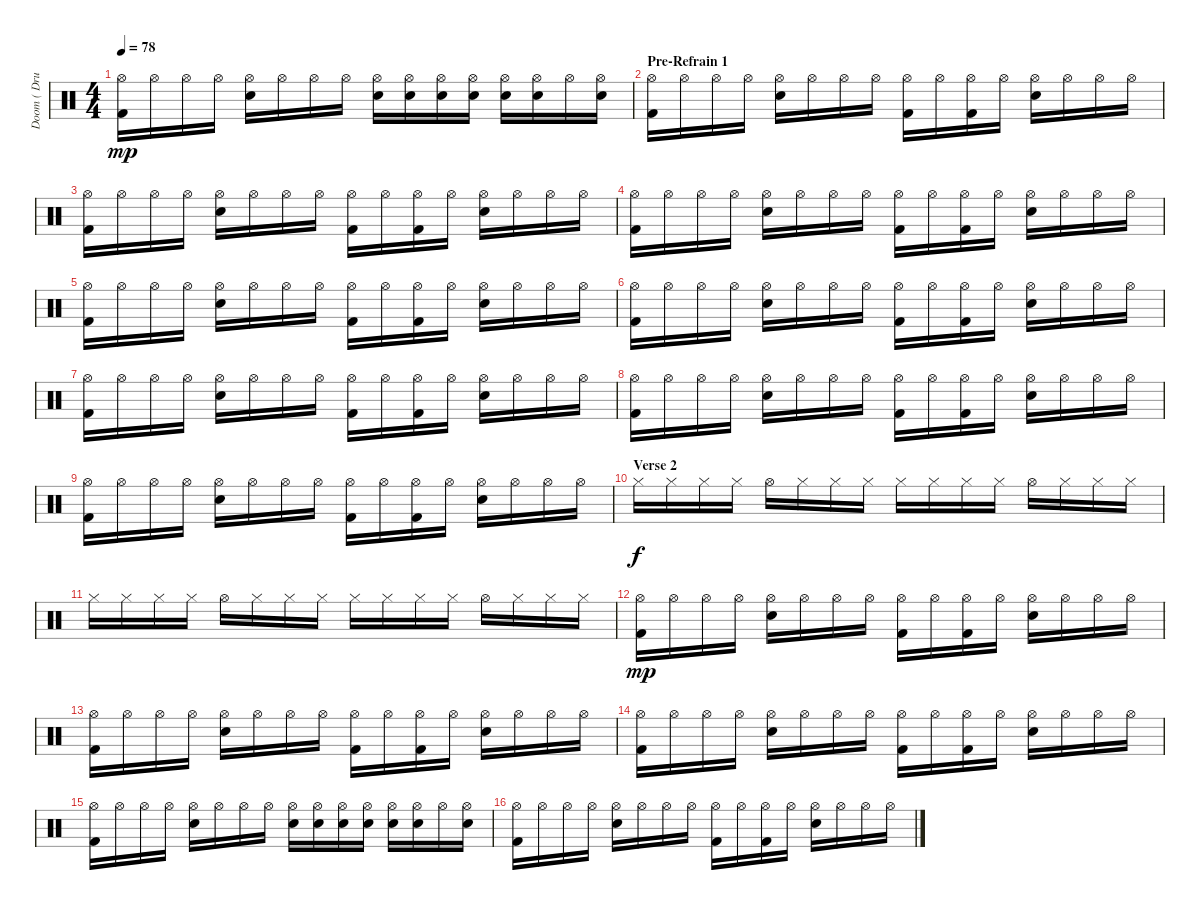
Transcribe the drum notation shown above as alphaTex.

\track ("Doom ( Drums )" "Doom ( Dru") {instrument percussion}
\staff {score}
\articulation defaults
\ts (4 4)
\tempo 78
\clef neutral
\ks c
("Kick (hit) 2" "Hi-Hat (open)").16{dy mp} "Hi-Hat (open)".16 "Hi-Hat (open)".16 "Hi-Hat (open)".16 ("Electric Snare (hit)" "Hi-Hat (open)").16 "Hi-Hat (open)".16 "Hi-Hat (open)".16 "Hi-Hat (open)".16 ("Electric Snare (hit)" "Hi-Hat (open)").16 ("Electric Snare (hit)" "Hi-Hat (open)").16 ("Electric Snare (hit)" "Hi-Hat (open)").16 ("Electric Snare (hit)" "Hi-Hat (open)").16 ("Electric Snare (hit)" "Hi-Hat (open)").16 ("Electric Snare (hit)" "Hi-Hat (open)").16 "Hi-Hat (open)".16 ("Electric Snare (hit)" "Hi-Hat (open)").16 |
\section ("" "Pre-Refrain 1")
("Kick (hit) 2" "Hi-Hat (open)").16 "Hi-Hat (open)".16 "Hi-Hat (open)".16 "Hi-Hat (open)".16 ("Electric Snare (hit)" "Hi-Hat (open)").16 "Hi-Hat (open)".16 "Hi-Hat (open)".16 "Hi-Hat (open)".16 ("Kick (hit) 2" "Hi-Hat (open)").16 "Hi-Hat (open)".16 ("Kick (hit) 2" "Hi-Hat (open)").16 "Hi-Hat (open)".16 ("Electric Snare (hit)" "Hi-Hat (open)").16 "Hi-Hat (open)".16 "Hi-Hat (open)".16 "Hi-Hat (open)".16 |
("Kick (hit) 2" "Hi-Hat (open)").16 "Hi-Hat (open)".16 "Hi-Hat (open)".16 "Hi-Hat (open)".16 ("Electric Snare (hit)" "Hi-Hat (open)").16 "Hi-Hat (open)".16 "Hi-Hat (open)".16 "Hi-Hat (open)".16 ("Kick (hit) 2" "Hi-Hat (open)").16 "Hi-Hat (open)".16 ("Kick (hit) 2" "Hi-Hat (open)").16 "Hi-Hat (open)".16 ("Electric Snare (hit)" "Hi-Hat (open)").16 "Hi-Hat (open)".16 "Hi-Hat (open)".16 "Hi-Hat (open)".16 |
("Kick (hit) 2" "Hi-Hat (open)").16 "Hi-Hat (open)".16 "Hi-Hat (open)".16 "Hi-Hat (open)".16 ("Electric Snare (hit)" "Hi-Hat (open)").16 "Hi-Hat (open)".16 "Hi-Hat (open)".16 "Hi-Hat (open)".16 ("Kick (hit) 2" "Hi-Hat (open)").16 "Hi-Hat (open)".16 ("Kick (hit) 2" "Hi-Hat (open)").16 "Hi-Hat (open)".16 ("Electric Snare (hit)" "Hi-Hat (open)").16 "Hi-Hat (open)".16 "Hi-Hat (open)".16 "Hi-Hat (open)".16 |
("Kick (hit) 2" "Hi-Hat (open)").16 "Hi-Hat (open)".16 "Hi-Hat (open)".16 "Hi-Hat (open)".16 ("Electric Snare (hit)" "Hi-Hat (open)").16 "Hi-Hat (open)".16 "Hi-Hat (open)".16 "Hi-Hat (open)".16 ("Kick (hit) 2" "Hi-Hat (open)").16 "Hi-Hat (open)".16 ("Kick (hit) 2" "Hi-Hat (open)").16 "Hi-Hat (open)".16 ("Electric Snare (hit)" "Hi-Hat (open)").16 "Hi-Hat (open)".16 "Hi-Hat (open)".16 "Hi-Hat (open)".16 |
("Kick (hit) 2" "Hi-Hat (open)").16 "Hi-Hat (open)".16 "Hi-Hat (open)".16 "Hi-Hat (open)".16 ("Electric Snare (hit)" "Hi-Hat (open)").16 "Hi-Hat (open)".16 "Hi-Hat (open)".16 "Hi-Hat (open)".16 ("Kick (hit) 2" "Hi-Hat (open)").16 "Hi-Hat (open)".16 ("Kick (hit) 2" "Hi-Hat (open)").16 "Hi-Hat (open)".16 ("Electric Snare (hit)" "Hi-Hat (open)").16 "Hi-Hat (open)".16 "Hi-Hat (open)".16 "Hi-Hat (open)".16 |
("Kick (hit) 2" "Hi-Hat (open)").16 "Hi-Hat (open)".16 "Hi-Hat (open)".16 "Hi-Hat (open)".16 ("Electric Snare (hit)" "Hi-Hat (open)").16 "Hi-Hat (open)".16 "Hi-Hat (open)".16 "Hi-Hat (open)".16 ("Kick (hit) 2" "Hi-Hat (open)").16 "Hi-Hat (open)".16 ("Kick (hit) 2" "Hi-Hat (open)").16 "Hi-Hat (open)".16 ("Electric Snare (hit)" "Hi-Hat (open)").16 "Hi-Hat (open)".16 "Hi-Hat (open)".16 "Hi-Hat (open)".16 |
("Kick (hit) 2" "Hi-Hat (open)").16 "Hi-Hat (open)".16 "Hi-Hat (open)".16 "Hi-Hat (open)".16 ("Electric Snare (hit)" "Hi-Hat (open)").16 "Hi-Hat (open)".16 "Hi-Hat (open)".16 "Hi-Hat (open)".16 ("Kick (hit) 2" "Hi-Hat (open)").16 "Hi-Hat (open)".16 ("Kick (hit) 2" "Hi-Hat (open)").16 "Hi-Hat (open)".16 ("Electric Snare (hit)" "Hi-Hat (open)").16 "Hi-Hat (open)".16 "Hi-Hat (open)".16 "Hi-Hat (open)".16 |
("Kick (hit) 2" "Hi-Hat (open)").16 "Hi-Hat (open)".16 "Hi-Hat (open)".16 "Hi-Hat (open)".16 ("Electric Snare (hit)" "Hi-Hat (open)").16 "Hi-Hat (open)".16 "Hi-Hat (open)".16 "Hi-Hat (open)".16 ("Kick (hit) 2" "Hi-Hat (open)").16 "Hi-Hat (open)".16 ("Kick (hit) 2" "Hi-Hat (open)").16 "Hi-Hat (open)".16 ("Electric Snare (hit)" "Hi-Hat (open)").16 "Hi-Hat (open)".16 "Hi-Hat (open)".16 "Hi-Hat (open)".16 |
\section ("" "Verse 2")
"Hi-Hat (closed)".16{dy f} "Hi-Hat (closed)".16 "Hi-Hat (closed)".16 "Hi-Hat (closed)".16 "Hi-Hat (open)".16 "Hi-Hat (closed)".16 "Hi-Hat (closed)".16 "Hi-Hat (closed)".16 "Hi-Hat (closed)".16 "Hi-Hat (closed)".16 "Hi-Hat (closed)".16 "Hi-Hat (closed)".16 "Hi-Hat (open)".16 "Hi-Hat (closed)".16 "Hi-Hat (closed)".16 "Hi-Hat (closed)".16 |
"Hi-Hat (closed)".16 "Hi-Hat (closed)".16 "Hi-Hat (closed)".16 "Hi-Hat (closed)".16 "Hi-Hat (open)".16 "Hi-Hat (closed)".16 "Hi-Hat (closed)".16 "Hi-Hat (closed)".16 "Hi-Hat (closed)".16 "Hi-Hat (closed)".16 "Hi-Hat (closed)".16 "Hi-Hat (closed)".16 "Hi-Hat (open)".16 "Hi-Hat (closed)".16 "Hi-Hat (closed)".16 "Hi-Hat (closed)".16 |
("Kick (hit) 2" "Hi-Hat (open)").16{dy mp} "Hi-Hat (open)".16 "Hi-Hat (open)".16 "Hi-Hat (open)".16 ("Electric Snare (hit)" "Hi-Hat (open)").16 "Hi-Hat (open)".16 "Hi-Hat (open)".16 "Hi-Hat (open)".16 ("Kick (hit) 2" "Hi-Hat (open)").16 "Hi-Hat (open)".16 ("Kick (hit) 2" "Hi-Hat (open)").16 "Hi-Hat (open)".16 ("Electric Snare (hit)" "Hi-Hat (open)").16 "Hi-Hat (open)".16 "Hi-Hat (open)".16 "Hi-Hat (open)".16 |
("Kick (hit) 2" "Hi-Hat (open)").16 "Hi-Hat (open)".16 "Hi-Hat (open)".16 "Hi-Hat (open)".16 ("Electric Snare (hit)" "Hi-Hat (open)").16 "Hi-Hat (open)".16 "Hi-Hat (open)".16 "Hi-Hat (open)".16 ("Kick (hit) 2" "Hi-Hat (open)").16 "Hi-Hat (open)".16 ("Kick (hit) 2" "Hi-Hat (open)").16 "Hi-Hat (open)".16 ("Electric Snare (hit)" "Hi-Hat (open)").16 "Hi-Hat (open)".16 "Hi-Hat (open)".16 "Hi-Hat (open)".16 |
("Kick (hit) 2" "Hi-Hat (open)").16 "Hi-Hat (open)".16 "Hi-Hat (open)".16 "Hi-Hat (open)".16 ("Electric Snare (hit)" "Hi-Hat (open)").16 "Hi-Hat (open)".16 "Hi-Hat (open)".16 "Hi-Hat (open)".16 ("Kick (hit) 2" "Hi-Hat (open)").16 "Hi-Hat (open)".16 ("Kick (hit) 2" "Hi-Hat (open)").16 "Hi-Hat (open)".16 ("Electric Snare (hit)" "Hi-Hat (open)").16 "Hi-Hat (open)".16 "Hi-Hat (open)".16 "Hi-Hat (open)".16 |
("Kick (hit) 2" "Hi-Hat (open)").16 "Hi-Hat (open)".16 "Hi-Hat (open)".16 "Hi-Hat (open)".16 ("Electric Snare (hit)" "Hi-Hat (open)").16 "Hi-Hat (open)".16 "Hi-Hat (open)".16 "Hi-Hat (open)".16 ("Electric Snare (hit)" "Hi-Hat (open)").16 ("Electric Snare (hit)" "Hi-Hat (open)").16 ("Electric Snare (hit)" "Hi-Hat (open)").16 ("Electric Snare (hit)" "Hi-Hat (open)").16 ("Electric Snare (hit)" "Hi-Hat (open)").16 ("Electric Snare (hit)" "Hi-Hat (open)").16 "Hi-Hat (open)".16 ("Electric Snare (hit)" "Hi-Hat (open)").16 |
("Kick (hit) 2" "Hi-Hat (open)").16 "Hi-Hat (open)".16 "Hi-Hat (open)".16 "Hi-Hat (open)".16 ("Electric Snare (hit)" "Hi-Hat (open)").16 "Hi-Hat (open)".16 "Hi-Hat (open)".16 "Hi-Hat (open)".16 ("Kick (hit) 2" "Hi-Hat (open)").16 "Hi-Hat (open)".16 ("Kick (hit) 2" "Hi-Hat (open)").16 "Hi-Hat (open)".16 ("Electric Snare (hit)" "Hi-Hat (open)").16 "Hi-Hat (open)".16 "Hi-Hat (open)".16 "Hi-Hat (open)".16
